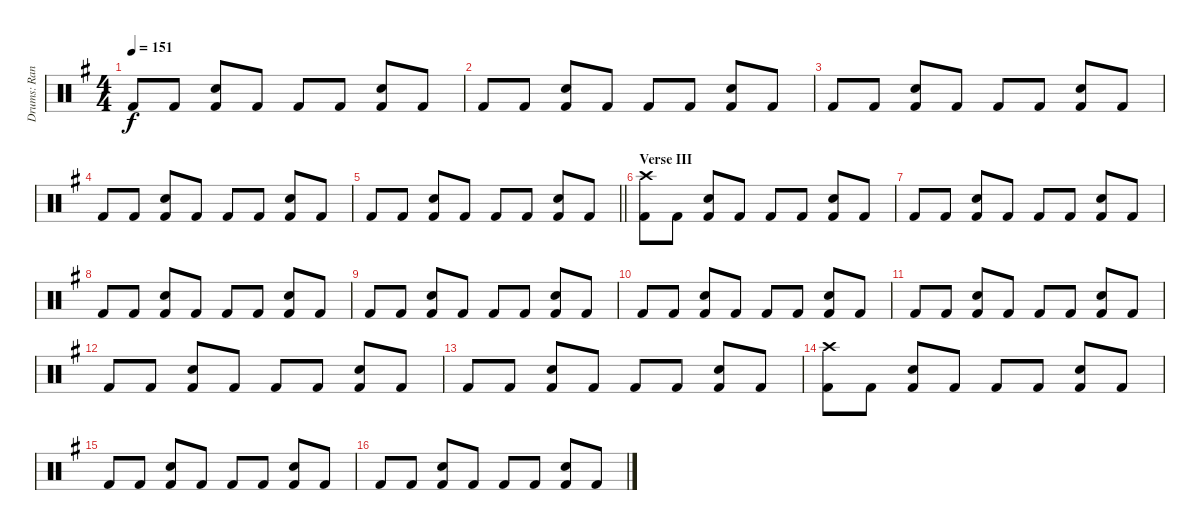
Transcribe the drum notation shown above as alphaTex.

\track ("Drums: Randy" "Drums: Ran") {instrument percussion}
\staff {score}
\articulation defaults
\ts (4 4)
\tempo 151
\clef neutral
\ks g "Kick (hit) 2".8{dy f} "Kick (hit) 2".8
("Snare (hit) 2" "Kick (hit) 2").8 "Kick (hit) 2".8 "Kick (hit) 2".8 "Kick (hit) 2".8 ("Snare (hit) 2" "Kick (hit) 2").8 "Kick (hit) 2".8 |
"Kick (hit) 2".8 "Kick (hit) 2".8 ("Snare (hit) 2" "Kick (hit) 2").8 "Kick (hit) 2".8 "Kick (hit) 2".8 "Kick (hit) 2".8 ("Snare (hit) 2" "Kick (hit) 2").8 "Kick (hit) 2".8 |
"Kick (hit) 2".8 "Kick (hit) 2".8 ("Snare (hit) 2" "Kick (hit) 2").8 "Kick (hit) 2".8 "Kick (hit) 2".8 "Kick (hit) 2".8 ("Snare (hit) 2" "Kick (hit) 2").8 "Kick (hit) 2".8 |
"Kick (hit) 2".8 "Kick (hit) 2".8 ("Snare (hit) 2" "Kick (hit) 2").8 "Kick (hit) 2".8 "Kick (hit) 2".8 "Kick (hit) 2".8 ("Snare (hit) 2" "Kick (hit) 2").8 "Kick (hit) 2".8 |
\barLineRight lightlight "Kick (hit) 2".8 "Kick (hit) 2".8
("Snare (hit) 2" "Kick (hit) 2").8 "Kick (hit) 2".8 "Kick (hit) 2".8 "Kick (hit) 2".8 ("Snare (hit) 2" "Kick (hit) 2").8 "Kick (hit) 2".8 |
\section ("" "Verse III")
("Crash high (hit)" "Kick (hit) 2").8 "Kick (hit) 2".8 ("Snare (hit) 2" "Kick (hit) 2").8 "Kick (hit) 2".8 "Kick (hit) 2".8 "Kick (hit) 2".8 ("Snare (hit) 2" "Kick (hit) 2").8 "Kick (hit) 2".8 |
"Kick (hit) 2".8 "Kick (hit) 2".8 ("Snare (hit) 2" "Kick (hit) 2").8 "Kick (hit) 2".8 "Kick (hit) 2".8 "Kick (hit) 2".8 ("Snare (hit) 2" "Kick (hit) 2").8 "Kick (hit) 2".8 |
"Kick (hit) 2".8 "Kick (hit) 2".8 ("Snare (hit) 2" "Kick (hit) 2").8 "Kick (hit) 2".8 "Kick (hit) 2".8 "Kick (hit) 2".8 ("Snare (hit) 2" "Kick (hit) 2").8 "Kick (hit) 2".8 |
"Kick (hit) 2".8 "Kick (hit) 2".8 ("Snare (hit) 2" "Kick (hit) 2").8 "Kick (hit) 2".8 "Kick (hit) 2".8 "Kick (hit) 2".8 ("Snare (hit) 2" "Kick (hit) 2").8 "Kick (hit) 2".8 |
"Kick (hit) 2".8 "Kick (hit) 2".8 ("Snare (hit) 2" "Kick (hit) 2").8 "Kick (hit) 2".8 "Kick (hit) 2".8 "Kick (hit) 2".8 ("Snare (hit) 2" "Kick (hit) 2").8 "Kick (hit) 2".8 |
"Kick (hit) 2".8 "Kick (hit) 2".8 ("Snare (hit) 2" "Kick (hit) 2").8 "Kick (hit) 2".8 "Kick (hit) 2".8 "Kick (hit) 2".8 ("Snare (hit) 2" "Kick (hit) 2").8 "Kick (hit) 2".8 |
"Kick (hit) 2".8 "Kick (hit) 2".8 ("Snare (hit) 2" "Kick (hit) 2").8 "Kick (hit) 2".8 "Kick (hit) 2".8 "Kick (hit) 2".8 ("Snare (hit) 2" "Kick (hit) 2").8 "Kick (hit) 2".8 |
"Kick (hit) 2".8 "Kick (hit) 2".8 ("Snare (hit) 2" "Kick (hit) 2").8 "Kick (hit) 2".8 "Kick (hit) 2".8 "Kick (hit) 2".8 ("Snare (hit) 2" "Kick (hit) 2").8 "Kick (hit) 2".8 |
("Crash high (hit)" "Kick (hit) 2").8 "Kick (hit) 2".8 ("Snare (hit) 2" "Kick (hit) 2").8 "Kick (hit) 2".8 "Kick (hit) 2".8 "Kick (hit) 2".8 ("Snare (hit) 2" "Kick (hit) 2").8 "Kick (hit) 2".8 |
"Kick (hit) 2".8 "Kick (hit) 2".8 ("Snare (hit) 2" "Kick (hit) 2").8 "Kick (hit) 2".8 "Kick (hit) 2".8 "Kick (hit) 2".8 ("Snare (hit) 2" "Kick (hit) 2").8 "Kick (hit) 2".8 |
"Kick (hit) 2".8 "Kick (hit) 2".8 ("Snare (hit) 2" "Kick (hit) 2").8 "Kick (hit) 2".8 "Kick (hit) 2".8 "Kick (hit) 2".8 ("Snare (hit) 2" "Kick (hit) 2").8 "Kick (hit) 2".8
